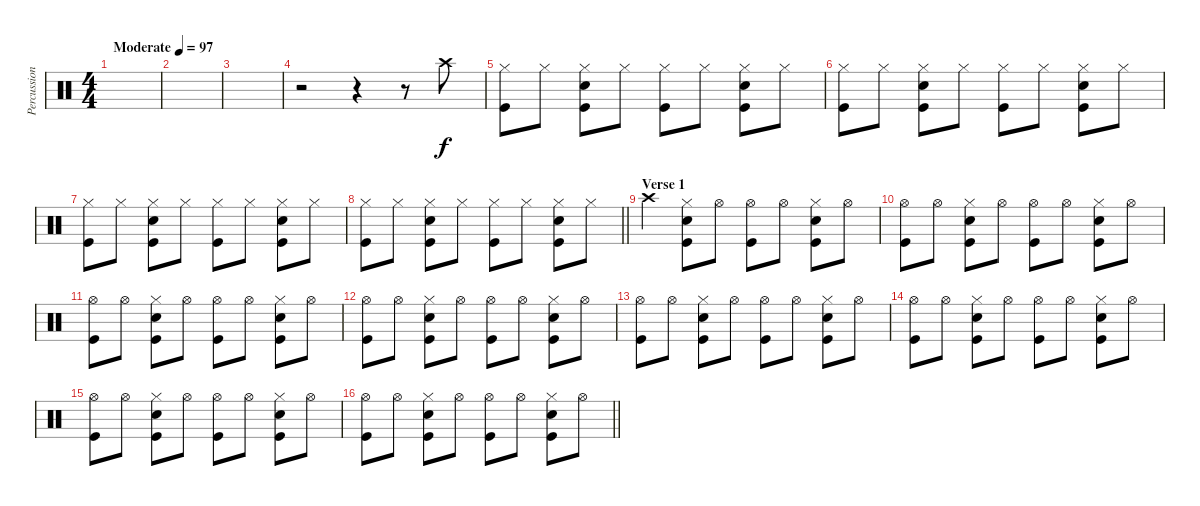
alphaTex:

\track ("Percussion" "Percussion") {instrument percussion}
\staff {score}
\articulation defaults
\ts (4 4)
\tempo (97 "Moderate")
\clef neutral
\ks c
|
|
|
r.2 r.4 r.8 "Crash high (hit)".8 |
("Hi-Hat (closed)" "Kick (hit)").8 "Hi-Hat (closed)".8 ("Hi-Hat (closed)" "Kick (hit)" "Snare (hit) 2").8 "Hi-Hat (closed)".8 ("Hi-Hat (closed)" "Kick (hit)").8 "Hi-Hat (closed)".8 ("Hi-Hat (closed)" "Kick (hit)" "Snare (hit) 2").8 "Hi-Hat (closed)".8 |
("Hi-Hat (closed)" "Kick (hit)").8 "Hi-Hat (closed)".8 ("Hi-Hat (closed)" "Kick (hit)" "Snare (hit) 2").8 "Hi-Hat (closed)".8 ("Hi-Hat (closed)" "Kick (hit)").8 "Hi-Hat (closed)".8 ("Hi-Hat (closed)" "Kick (hit)" "Snare (hit) 2").8 "Hi-Hat (closed)".8 |
("Hi-Hat (closed)" "Kick (hit)").8 "Hi-Hat (closed)".8 ("Hi-Hat (closed)" "Kick (hit)" "Snare (hit) 2").8 "Hi-Hat (closed)".8 ("Hi-Hat (closed)" "Kick (hit)").8 "Hi-Hat (closed)".8 ("Hi-Hat (closed)" "Kick (hit)" "Snare (hit) 2").8 "Hi-Hat (closed)".8 |
\barLineRight lightlight
("Hi-Hat (closed)" "Kick (hit)").8 "Hi-Hat (closed)".8 ("Hi-Hat (closed)" "Kick (hit)" "Snare (hit) 2").8 "Hi-Hat (closed)".8 ("Hi-Hat (closed)" "Kick (hit)").8 "Hi-Hat (closed)".8 ("Hi-Hat (closed)" "Kick (hit)" "Snare (hit) 2").8 "Hi-Hat (closed)".8 |
\section ("" "Verse 1")
"Crash high (hit)".4 ("Hi-Hat (closed)" "Kick (hit)" "Snare (hit) 2").8 "Hi-Hat (open)".8 ("Hi-Hat (open)" "Kick (hit)").8 "Hi-Hat (open)".8 ("Hi-Hat (closed)" "Kick (hit)" "Snare (hit) 2").8 "Hi-Hat (open)".8 |
("Hi-Hat (open)" "Kick (hit)").8 "Hi-Hat (open)".8 ("Hi-Hat (closed)" "Kick (hit)" "Snare (hit) 2").8 "Hi-Hat (open)".8 ("Hi-Hat (open)" "Kick (hit)").8 "Hi-Hat (open)".8 ("Hi-Hat (closed)" "Kick (hit)" "Snare (hit) 2").8 "Hi-Hat (open)".8 |
("Hi-Hat (open)" "Kick (hit)").8 "Hi-Hat (open)".8 ("Hi-Hat (closed)" "Kick (hit)" "Snare (hit) 2").8 "Hi-Hat (open)".8 ("Hi-Hat (open)" "Kick (hit)").8 "Hi-Hat (open)".8 ("Hi-Hat (closed)" "Kick (hit)" "Snare (hit) 2").8 "Hi-Hat (open)".8 |
("Hi-Hat (open)" "Kick (hit)").8 "Hi-Hat (open)".8 ("Hi-Hat (closed)" "Kick (hit)" "Snare (hit) 2").8 "Hi-Hat (open)".8 ("Hi-Hat (open)" "Kick (hit)").8 "Hi-Hat (open)".8 ("Hi-Hat (closed)" "Kick (hit)" "Snare (hit) 2").8 "Hi-Hat (open)".8 |
("Hi-Hat (open)" "Kick (hit)").8 "Hi-Hat (open)".8 ("Hi-Hat (closed)" "Kick (hit)" "Snare (hit) 2").8 "Hi-Hat (open)".8 ("Hi-Hat (open)" "Kick (hit)").8 "Hi-Hat (open)".8 ("Hi-Hat (closed)" "Kick (hit)" "Snare (hit) 2").8 "Hi-Hat (open)".8 |
("Hi-Hat (open)" "Kick (hit)").8 "Hi-Hat (open)".8 ("Hi-Hat (closed)" "Kick (hit)" "Snare (hit) 2").8 "Hi-Hat (open)".8 ("Hi-Hat (open)" "Kick (hit)").8 "Hi-Hat (open)".8 ("Hi-Hat (closed)" "Kick (hit)" "Snare (hit) 2").8 "Hi-Hat (open)".8 |
("Hi-Hat (open)" "Kick (hit)").8 "Hi-Hat (open)".8 ("Hi-Hat (closed)" "Kick (hit)" "Snare (hit) 2").8 "Hi-Hat (open)".8 ("Hi-Hat (open)" "Kick (hit)").8 "Hi-Hat (open)".8 ("Hi-Hat (closed)" "Kick (hit)" "Snare (hit) 2").8 "Hi-Hat (open)".8 |
\barLineRight lightlight
("Hi-Hat (open)" "Kick (hit)").8 "Hi-Hat (open)".8 ("Hi-Hat (closed)" "Kick (hit)" "Snare (hit) 2").8 "Hi-Hat (open)".8 ("Hi-Hat (open)" "Kick (hit)").8 "Hi-Hat (open)".8 ("Hi-Hat (closed)" "Kick (hit)" "Snare (hit) 2").8 "Hi-Hat (open)".8
